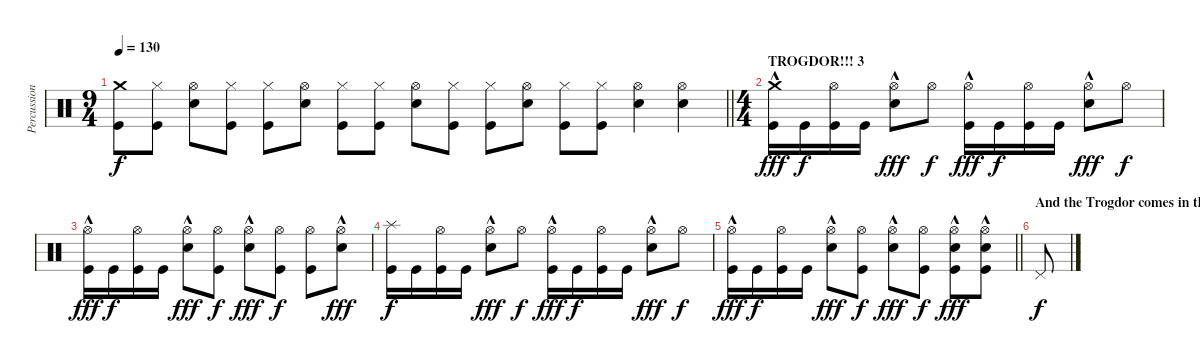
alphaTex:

\track ("Percussion" "Percussion") {instrument percussion}
\staff {score}
\articulation defaults
\ts (9 4)
\tempo 130
\clef neutral
\barLineRight lightlight
\ks c
("Kick (hit)" "Crash medium (hit)").8{dy f} ("Hi-Hat (closed)" "Kick (hit)").8 ("Snare (hit) 2" "Hi-Hat (open)").8 ("Hi-Hat (closed)" "Kick (hit)").8 ("Hi-Hat (closed)" "Kick (hit)").8 ("Snare (hit) 2" "Hi-Hat (open)").8 ("Hi-Hat (closed)" "Kick (hit)").8 ("Hi-Hat (closed)" "Kick (hit)").8 ("Snare (hit) 2" "Hi-Hat (open)").8 ("Hi-Hat (closed)" "Kick (hit)").8 ("Hi-Hat (closed)" "Kick (hit)").8 ("Snare (hit) 2" "Hi-Hat (open)").8 ("Hi-Hat (closed)" "Kick (hit)").8 ("Hi-Hat (closed)" "Kick (hit)").8 ("Snare (hit) 2" "Hi-Hat (open)").4 ("Snare (hit) 2" "Hi-Hat (open)").4 |
\ts (4 4)
\section ("" "TROGDOR!!! 3")
("Kick (hit)" "Crash medium (hit)"{hac}).16{dy fff} "Kick (hit)".16{dy f} ("Hi-Hat (open)" "Kick (hit)").16 "Kick (hit)".16 ("Snare (hit) 2" "Hi-Hat (open)"{hac}).8{dy fff} "Hi-Hat (open)".8{dy f} ("Hi-Hat (open)"{hac} "Kick (hit)").16{dy fff} "Kick (hit)".16{dy f} ("Hi-Hat (open)" "Kick (hit)").16 "Kick (hit)".16 ("Snare (hit) 2" "Hi-Hat (open)"{hac}).8{dy fff} "Hi-Hat (open)".8{dy f} |
("Hi-Hat (open)"{hac} "Kick (hit)").16{dy fff} "Kick (hit)".16{dy f} ("Hi-Hat (open)" "Kick (hit)").16 "Kick (hit)".16 ("Snare (hit) 2" "Hi-Hat (open)"{hac}).8{dy fff} ("Hi-Hat (open)" "Kick (hit)").8{dy f} ("Snare (hit) 2" "Hi-Hat (open)"{hac}).8{dy fff} ("Hi-Hat (open)" "Kick (hit)").8{dy f} ("Hi-Hat (open)" "Kick (hit)").8 ("Snare (hit) 2" "Hi-Hat (open)"{hac}).8{dy fff} |
("Kick (hit)" "Splash (hit)").16{dy f} "Kick (hit)".16 ("Hi-Hat (open)" "Kick (hit)").16 "Kick (hit)".16 ("Snare (hit) 2" "Hi-Hat (open)"{hac}).8{dy fff} "Hi-Hat (open)".8{dy f} ("Hi-Hat (open)"{hac} "Kick (hit)").16{dy fff} "Kick (hit)".16{dy f} ("Hi-Hat (open)" "Kick (hit)").16 "Kick (hit)".16 ("Snare (hit) 2" "Hi-Hat (open)"{hac}).8{dy fff} "Hi-Hat (open)".8{dy f} |
\barLineRight lightlight
("Hi-Hat (open)"{hac} "Kick (hit)").16{dy fff} "Kick (hit)".16{dy f} ("Hi-Hat (open)" "Kick (hit)").16 "Kick (hit)".16 ("Snare (hit) 2" "Hi-Hat (open)"{hac}).8{dy fff} ("Hi-Hat (open)" "Kick (hit)").8{dy f} ("Snare (hit) 2" "Hi-Hat (open)"{hac}).8{dy fff} ("Hi-Hat (open)" "Kick (hit)").8{dy f} ("Snare (hit) 2"{hac} "Hi-Hat (open)" "Kick (hit)").8{dy fff} ("Snare (hit) 2" "Hi-Hat (open)"{hac} "Kick (hit)").8 |
\section ("" "And the Trogdor comes in the NIIIIIIGHT!")
"Pedal Hi-Hat (hit)".8{dy f}
